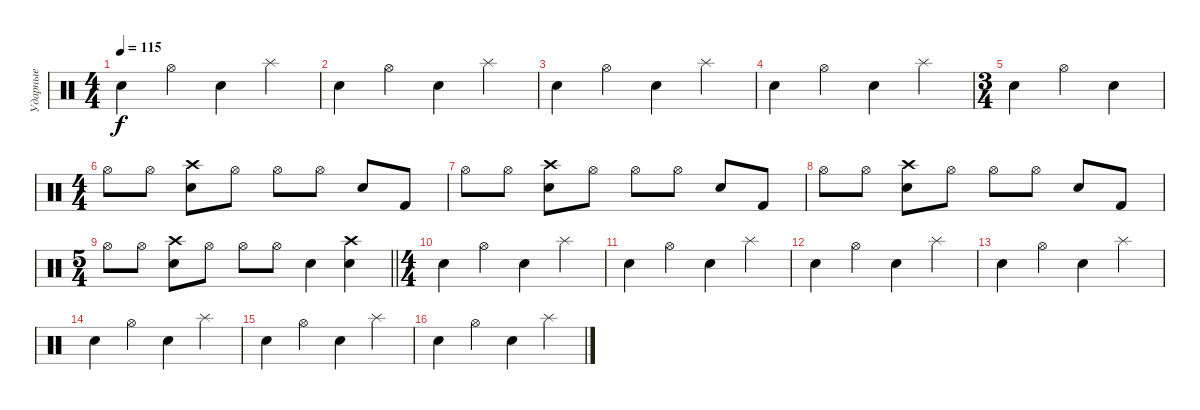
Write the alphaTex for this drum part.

\track ("Ударные" "Ударные") {instrument percussion}
\staff {score}
\articulation defaults
\ts (4 4)
\tempo 115
\clef neutral
\ks c "Snare (hit) 2".4{dy f} "Hi-Hat (open)".4 "Snare (hit) 2".4 "Splash (hit)".4
|
"Snare (hit) 2".4 "Hi-Hat (open)".4 "Snare (hit) 2".4 "Splash (hit)".4 |
"Snare (hit) 2".4 "Hi-Hat (open)".4 "Snare (hit) 2".4 "Splash (hit)".4 |
"Snare (hit) 2".4 "Hi-Hat (open)".4 "Snare (hit) 2".4 "Splash (hit)".4 |
\ts (3 4)
"Snare (hit) 2".4 "Hi-Hat (open)".4 "Snare (hit) 2".4 |
\ts (4 4)
"Hi-Hat (open)".8 "Hi-Hat (open)".8 ("Crash high (hit)" "Snare (hit) 2").8 "Hi-Hat (open)".8 "Hi-Hat (open)".8 "Hi-Hat (open)".8 "Snare (hit) 2".8 "Kick (hit) 2".8 |
"Hi-Hat (open)".8 "Hi-Hat (open)".8 ("Crash high (hit)" "Snare (hit) 2").8 "Hi-Hat (open)".8 "Hi-Hat (open)".8 "Hi-Hat (open)".8 "Snare (hit) 2".8 "Kick (hit) 2".8 |
"Hi-Hat (open)".8 "Hi-Hat (open)".8 ("Crash high (hit)" "Snare (hit) 2").8 "Hi-Hat (open)".8 "Hi-Hat (open)".8 "Hi-Hat (open)".8 "Snare (hit) 2".8 "Kick (hit) 2".8 |
\ts (5 4)
\barLineRight lightlight "Hi-Hat (open)".8 "Hi-Hat (open)".8
("Crash high (hit)" "Snare (hit) 2").8 "Hi-Hat (open)".8 "Hi-Hat (open)".8 "Hi-Hat (open)".8 "Snare (hit) 2".4 ("Snare (hit) 2" "Crash high (hit)").4 |
\ts (4 4)
"Snare (hit) 2".4 "Hi-Hat (open)".4 "Snare (hit) 2".4 "Splash (hit)".4 |
"Snare (hit) 2".4 "Hi-Hat (open)".4 "Snare (hit) 2".4 "Splash (hit)".4 |
"Snare (hit) 2".4 "Hi-Hat (open)".4 "Snare (hit) 2".4 "Splash (hit)".4 |
"Snare (hit) 2".4 "Hi-Hat (open)".4 "Snare (hit) 2".4 "Splash (hit)".4 |
"Snare (hit) 2".4 "Hi-Hat (open)".4 "Snare (hit) 2".4 "Splash (hit)".4 |
"Snare (hit) 2".4 "Hi-Hat (open)".4 "Snare (hit) 2".4 "Splash (hit)".4 |
"Snare (hit) 2".4 "Hi-Hat (open)".4 "Snare (hit) 2".4 "Splash (hit)".4
